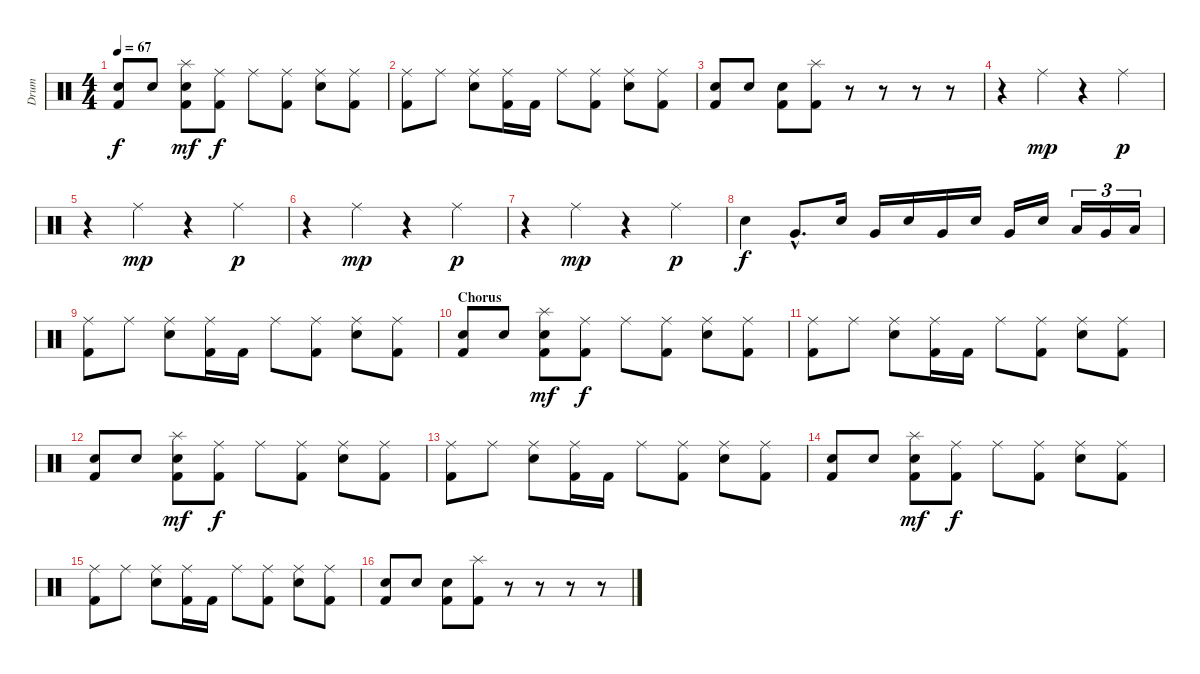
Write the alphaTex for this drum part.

\track ("Drum" "Drum") {instrument percussion}
\staff {score}
\articulation defaults
\ts (4 4)
\tempo 67
\clef neutral
\ks c
("Electric Snare (hit)" "Kick (hit) 2").8{dy f} "Electric Snare (hit)".8 ("Splash (hit)" "Electric Snare (hit)" "Kick (hit) 2").8{dy mf} ("Ride (middle)" "Kick (hit) 2").8{dy f} "Ride (middle)".8 ("Ride (middle)" "Kick (hit) 2").8 ("Ride (middle)" "Electric Snare (hit)").8 ("Ride (middle)" "Kick (hit) 2").8 |
("Ride (middle)" "Kick (hit) 2").8 "Ride (middle)".8 ("Ride (middle)" "Electric Snare (hit)").8 ("Ride (middle)" "Kick (hit) 2").16 "Kick (hit) 2".16 "Ride (middle)".8 ("Ride (middle)" "Kick (hit) 2").8 ("Ride (middle)" "Electric Snare (hit)").8 ("Ride (middle)" "Kick (hit) 2").8 |
("Electric Snare (hit)" "Kick (hit) 2").8 "Electric Snare (hit)".8 ("Electric Snare (hit)" "Kick (hit) 2").8 ("Splash (hit)" "Kick (hit) 2").8 r.8 r.8 r.8 r.8 |
r.4 "Ride (middle)".4{dy mp} r.4 "Ride (middle)".4{dy p} |
r.4 "Ride (middle)".4{dy mp} r.4 "Ride (middle)".4{dy p} |
r.4 "Ride (middle)".4{dy mp} r.4 "Ride (middle)".4{dy p} |
r.4 "Ride (middle)".4{dy mp} r.4 "Ride (middle)".4{dy p} |
"Electric Snare (hit)".4{dy f} "Very Low Tom (hit)"{hac}.8{d} "Electric Snare (hit)".16 "Very Low Tom (hit)".16 "Electric Snare (hit)".16 "Very Low Tom (hit)".16 "Electric Snare (hit)".16 "Very Low Tom (hit)".16 "Electric Snare (hit)".16 "Low Tom (hit)".16{tu (3 2)} "Very Low Tom (hit)".16{tu (3 2)} "Low Floor Tom (hit)".16{tu (3 2)} |
("Ride (middle)" "Kick (hit) 2").8 "Ride (middle)".8 ("Ride (middle)" "Electric Snare (hit)").8 ("Ride (middle)" "Kick (hit) 2").16 "Kick (hit) 2".16 "Ride (middle)".8 ("Ride (middle)" "Kick (hit) 2").8 ("Ride (middle)" "Electric Snare (hit)").8 ("Ride (middle)" "Kick (hit) 2").8 |
\section ("" "Chorus")
("Electric Snare (hit)" "Kick (hit) 2").8 "Electric Snare (hit)".8 ("Splash (hit)" "Electric Snare (hit)" "Kick (hit) 2").8{dy mf} ("Ride (middle)" "Kick (hit) 2").8{dy f} "Ride (middle)".8 ("Ride (middle)" "Kick (hit) 2").8 ("Ride (middle)" "Electric Snare (hit)").8 ("Ride (middle)" "Kick (hit) 2").8 |
("Ride (middle)" "Kick (hit) 2").8 "Ride (middle)".8 ("Ride (middle)" "Electric Snare (hit)").8 ("Ride (middle)" "Kick (hit) 2").16 "Kick (hit) 2".16 "Ride (middle)".8 ("Ride (middle)" "Kick (hit) 2").8 ("Ride (middle)" "Electric Snare (hit)").8 ("Ride (middle)" "Kick (hit) 2").8 |
("Electric Snare (hit)" "Kick (hit) 2").8 "Electric Snare (hit)".8 ("Splash (hit)" "Electric Snare (hit)" "Kick (hit) 2").8{dy mf} ("Ride (middle)" "Kick (hit) 2").8{dy f} "Ride (middle)".8 ("Ride (middle)" "Kick (hit) 2").8 ("Ride (middle)" "Electric Snare (hit)").8 ("Ride (middle)" "Kick (hit) 2").8 |
("Ride (middle)" "Kick (hit) 2").8 "Ride (middle)".8 ("Ride (middle)" "Electric Snare (hit)").8 ("Ride (middle)" "Kick (hit) 2").16 "Kick (hit) 2".16 "Ride (middle)".8 ("Ride (middle)" "Kick (hit) 2").8 ("Ride (middle)" "Electric Snare (hit)").8 ("Ride (middle)" "Kick (hit) 2").8 |
("Electric Snare (hit)" "Kick (hit) 2").8 "Electric Snare (hit)".8 ("Splash (hit)" "Electric Snare (hit)" "Kick (hit) 2").8{dy mf} ("Ride (middle)" "Kick (hit) 2").8{dy f} "Ride (middle)".8 ("Ride (middle)" "Kick (hit) 2").8 ("Ride (middle)" "Electric Snare (hit)").8 ("Ride (middle)" "Kick (hit) 2").8 |
("Ride (middle)" "Kick (hit) 2").8 "Ride (middle)".8 ("Ride (middle)" "Electric Snare (hit)").8 ("Ride (middle)" "Kick (hit) 2").16 "Kick (hit) 2".16 "Ride (middle)".8 ("Ride (middle)" "Kick (hit) 2").8 ("Ride (middle)" "Electric Snare (hit)").8 ("Ride (middle)" "Kick (hit) 2").8 |
("Electric Snare (hit)" "Kick (hit) 2").8 "Electric Snare (hit)".8 ("Electric Snare (hit)" "Kick (hit) 2").8 ("Splash (hit)" "Kick (hit) 2").8 r.8 r.8 r.8 r.8
